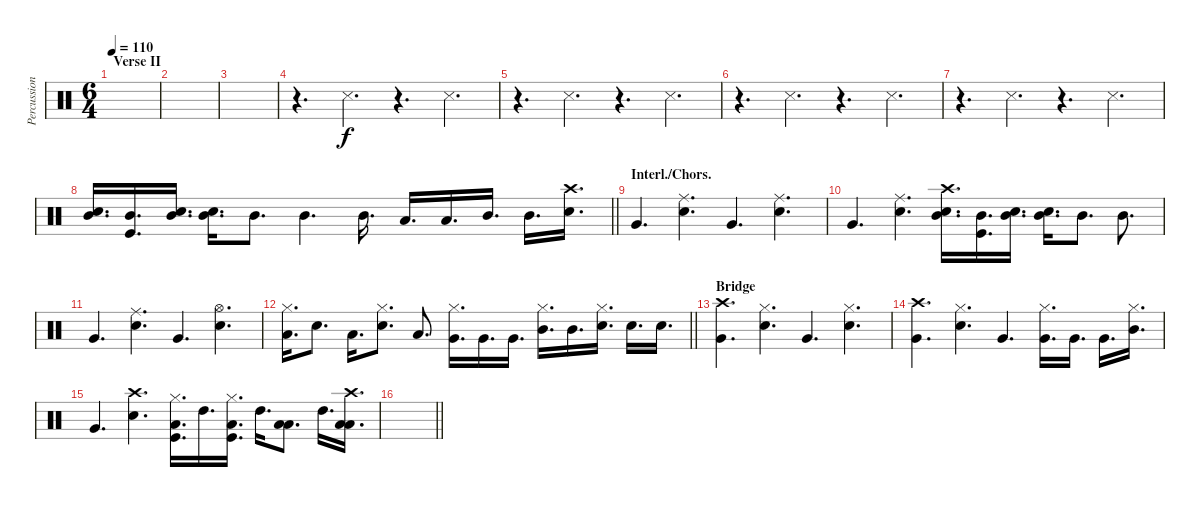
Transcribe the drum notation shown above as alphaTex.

\track ("Percussion" "Percussion") {instrument percussion}
\staff {score}
\articulation defaults
\ts (6 4)
\section ("" "Verse II")
\tempo 110
\clef neutral
\ks c
|
|
|
r.4{d} "Snare (side stick) 3".4{d} r.4{d} "Snare (side stick) 3".4{d} |
r.4{d} "Snare (side stick) 3".4{d} r.4{d} "Snare (side stick) 3".4{d} |
r.4{d} "Snare (side stick) 3".4{d} r.4{d} "Snare (side stick) 3".4{d} |
r.4{d} "Snare (side stick) 3".4{d} r.4{d} "Snare (side stick) 3".4{d} |
\barLineRight lightlight
("Snare (hit) 2" "Mid Tom (hit)").16{d} ("Kick (hit)" "Mid Tom (hit)").16{d} ("Snare (hit) 2" "Mid Tom (hit)").16{d} ("Snare (hit) 2" "Mid Tom (hit)").16{d} "Mid Tom (hit)".8{d} "Mid Tom (hit)".4{d} "Mid Tom (hit)".16{d} "Low Tom (hit)".16{d} "Low Floor Tom (hit)".16{d} "Mid Tom (hit)".16{d} "Mid Tom (hit)".16{d} ("Crash high (hit)" "Snare (hit) 2").16{d} |
\section ("" "Interl./Chors.")
"Very Low Tom (hit)".4{d} ("Ride (middle)" "Snare (hit) 2").4{d} "Very Low Tom (hit)".4{d} ("Ride (middle)" "Snare (hit) 2").4{d volume 9} |
"Very Low Tom (hit)".4{d} ("Ride (middle)" "Snare (hit) 2").4{d} ("Snare (hit) 2" "Mid Tom (hit)" "Crash high (hit)").16{d} ("Kick (hit)" "Mid Tom (hit)").16{d} ("Snare (hit) 2" "Mid Tom (hit)").16{d} ("Snare (hit) 2" "Mid Tom (hit)").16{d} "Mid Tom (hit)".8{d} "Mid Tom (hit)".8{d} |
"Very Low Tom (hit)".4{d} ("Ride (middle)" "Snare (hit) 2").4{d} "Very Low Tom (hit)".4{d} ("Hi-Hat (open)" "Snare (hit) 2").4{d} |
\barLineRight lightlight
("Low Floor Tom (hit)" "Hi-Hat (closed)").16{d volume 16} "Snare (hit) 2".8{d} "Low Floor Tom (hit)".16{d} ("Snare (hit) 2" "Hi-Hat (closed)").8{d} "Low Tom (hit)".8{d} ("Very Low Tom (hit)" "Hi-Hat (closed)").16{d} "Very Low Tom (hit)".16{d} "Very Low Tom (hit)".16{d} ("Mid Tom (hit)" "Hi-Hat (closed)").16{d} "Mid Tom (hit)".16{d} ("Snare (hit) 2" "Hi-Hat (closed)").16{d} "Snare (hit) 2".16{d} "Snare (hit) 2".16{d} |
\section ("" "Bridge")
("Crash high (hit)" "Very Low Tom (hit)").4{d volume 10} ("Hi-Hat (closed)" "Snare (hit) 2").4{d} "Very Low Tom (hit)".4{d} ("Hi-Hat (closed)" "Snare (hit) 2").4{d} |
("Crash high (hit)" "Very Low Tom (hit)").4{d} ("Hi-Hat (closed)" "Snare (hit) 2").4{d} "Very Low Tom (hit)".4{d} ("Very Low Tom (hit)" "Hi-Hat (closed)").16{d} "Very Low Tom (hit)".16{d} "Very Low Tom (hit)".16{d} ("Mid Tom (hit)" "Hi-Hat (closed)").16{d} |
"Very Low Tom (hit)".4{d} ("Crash high (hit)" "Snare (hit) 2").4{d volume 16} ("Low Floor Tom (hit)" "Kick (hit)" "Hi-Hat (closed)").16{d} "High Tom (hit)".16{d} ("Low Floor Tom (hit)" "Kick (hit)" "Hi-Hat (closed)").16{d} "High Tom (hit)".16{d} ("Low Tom (hit)" "Low Floor Tom (hit)").8{d} "High Tom (hit)".16{d} ("Low Floor Tom (hit)" "Low Floor Tom (hit)" "Crash high (hit)").16{d} |
\barLineRight lightlight
